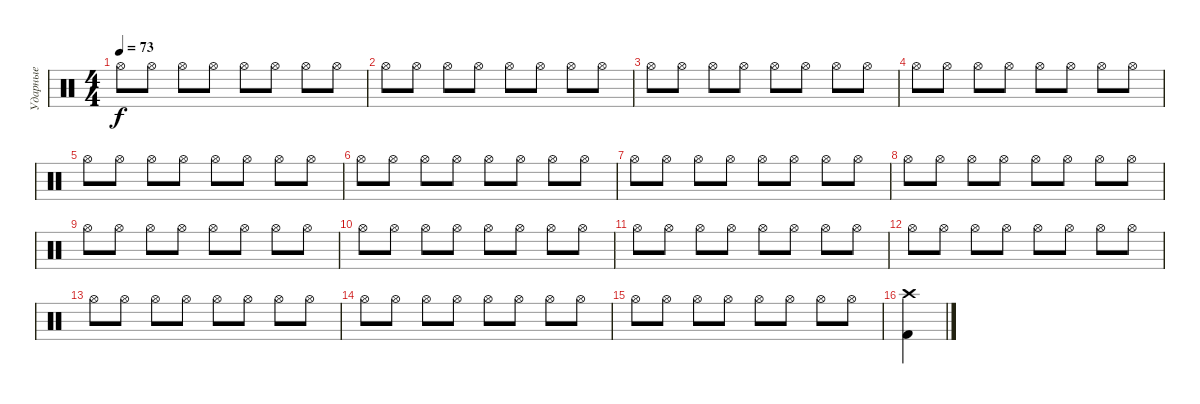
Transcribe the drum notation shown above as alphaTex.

\track ("Ударные" "Ударные") {instrument percussion}
\staff {score}
\articulation defaults
\ts (4 4)
\tempo 73
\clef neutral
\ks c "Hi-Hat (open)".8{dy f} "Hi-Hat (open)".8 "Hi-Hat (open)".8 "Hi-Hat (open)".8 "Hi-Hat (open)".8 "Hi-Hat (open)".8 "Hi-Hat (open)".8 "Hi-Hat (open)".8
|
"Hi-Hat (open)".8 "Hi-Hat (open)".8 "Hi-Hat (open)".8 "Hi-Hat (open)".8 "Hi-Hat (open)".8 "Hi-Hat (open)".8 "Hi-Hat (open)".8 "Hi-Hat (open)".8 |
"Hi-Hat (open)".8 "Hi-Hat (open)".8 "Hi-Hat (open)".8 "Hi-Hat (open)".8 "Hi-Hat (open)".8 "Hi-Hat (open)".8 "Hi-Hat (open)".8 "Hi-Hat (open)".8 |
"Hi-Hat (open)".8 "Hi-Hat (open)".8 "Hi-Hat (open)".8 "Hi-Hat (open)".8 "Hi-Hat (open)".8 "Hi-Hat (open)".8 "Hi-Hat (open)".8 "Hi-Hat (open)".8 |
"Hi-Hat (open)".8 "Hi-Hat (open)".8 "Hi-Hat (open)".8 "Hi-Hat (open)".8 "Hi-Hat (open)".8 "Hi-Hat (open)".8 "Hi-Hat (open)".8 "Hi-Hat (open)".8 |
"Hi-Hat (open)".8 "Hi-Hat (open)".8 "Hi-Hat (open)".8 "Hi-Hat (open)".8 "Hi-Hat (open)".8 "Hi-Hat (open)".8 "Hi-Hat (open)".8 "Hi-Hat (open)".8 |
"Hi-Hat (open)".8 "Hi-Hat (open)".8 "Hi-Hat (open)".8 "Hi-Hat (open)".8 "Hi-Hat (open)".8 "Hi-Hat (open)".8 "Hi-Hat (open)".8 "Hi-Hat (open)".8 |
"Hi-Hat (open)".8 "Hi-Hat (open)".8 "Hi-Hat (open)".8 "Hi-Hat (open)".8 "Hi-Hat (open)".8 "Hi-Hat (open)".8 "Hi-Hat (open)".8 "Hi-Hat (open)".8 |
"Hi-Hat (open)".8 "Hi-Hat (open)".8 "Hi-Hat (open)".8 "Hi-Hat (open)".8 "Hi-Hat (open)".8 "Hi-Hat (open)".8 "Hi-Hat (open)".8 "Hi-Hat (open)".8 |
"Hi-Hat (open)".8 "Hi-Hat (open)".8 "Hi-Hat (open)".8 "Hi-Hat (open)".8 "Hi-Hat (open)".8 "Hi-Hat (open)".8 "Hi-Hat (open)".8 "Hi-Hat (open)".8 |
"Hi-Hat (open)".8 "Hi-Hat (open)".8 "Hi-Hat (open)".8 "Hi-Hat (open)".8 "Hi-Hat (open)".8 "Hi-Hat (open)".8 "Hi-Hat (open)".8 "Hi-Hat (open)".8 |
"Hi-Hat (open)".8 "Hi-Hat (open)".8 "Hi-Hat (open)".8 "Hi-Hat (open)".8 "Hi-Hat (open)".8 "Hi-Hat (open)".8 "Hi-Hat (open)".8 "Hi-Hat (open)".8 |
"Hi-Hat (open)".8 "Hi-Hat (open)".8 "Hi-Hat (open)".8 "Hi-Hat (open)".8 "Hi-Hat (open)".8 "Hi-Hat (open)".8 "Hi-Hat (open)".8 "Hi-Hat (open)".8 |
"Hi-Hat (open)".8 "Hi-Hat (open)".8 "Hi-Hat (open)".8 "Hi-Hat (open)".8 "Hi-Hat (open)".8 "Hi-Hat (open)".8 "Hi-Hat (open)".8 "Hi-Hat (open)".8 |
"Hi-Hat (open)".8 "Hi-Hat (open)".8 "Hi-Hat (open)".8 "Hi-Hat (open)".8 "Hi-Hat (open)".8 "Hi-Hat (open)".8 "Hi-Hat (open)".8 "Hi-Hat (open)".8 |
("Crash high (hit)" "Kick (hit) 2").4
